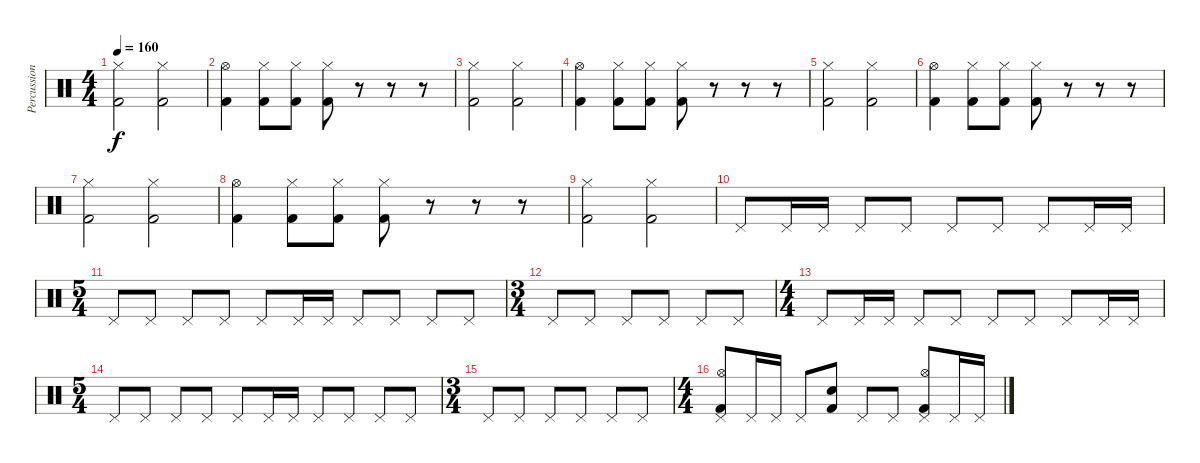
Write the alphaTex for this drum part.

\track ("Percussion" "Percussion") {instrument percussion}
\staff {score}
\articulation defaults
\ts (4 4)
\tempo 160
\clef neutral
\ks c
("Hi-Hat (closed)" "Kick (hit) 2").2{dy f} ("Hi-Hat (closed)" "Kick (hit) 2").2 |
("Hi-Hat (open)" "Kick (hit) 2").4 ("Hi-Hat (closed)" "Kick (hit) 2").8 ("Hi-Hat (closed)" "Kick (hit) 2").8 ("Hi-Hat (closed)" "Kick (hit) 2").8 r.8 r.8 r.8 |
("Hi-Hat (closed)" "Kick (hit) 2").2 ("Hi-Hat (closed)" "Kick (hit) 2").2 |
("Hi-Hat (open)" "Kick (hit) 2").4 ("Hi-Hat (closed)" "Kick (hit) 2").8 ("Hi-Hat (closed)" "Kick (hit) 2").8 ("Hi-Hat (closed)" "Kick (hit) 2").8 r.8 r.8 r.8 |
("Hi-Hat (closed)" "Kick (hit) 2").2 ("Hi-Hat (closed)" "Kick (hit) 2").2 |
("Hi-Hat (open)" "Kick (hit) 2").4 ("Hi-Hat (closed)" "Kick (hit) 2").8 ("Hi-Hat (closed)" "Kick (hit) 2").8 ("Hi-Hat (closed)" "Kick (hit) 2").8 r.8 r.8 r.8 |
("Hi-Hat (closed)" "Kick (hit) 2").2 ("Hi-Hat (closed)" "Kick (hit) 2").2 |
("Hi-Hat (open)" "Kick (hit) 2").4 ("Hi-Hat (closed)" "Kick (hit) 2").8 ("Hi-Hat (closed)" "Kick (hit) 2").8 ("Hi-Hat (closed)" "Kick (hit) 2").8 r.8 r.8 r.8 |
("Hi-Hat (closed)" "Kick (hit) 2").2 ("Hi-Hat (closed)" "Kick (hit) 2").2 |
"Pedal Hi-Hat (hit)".8 "Pedal Hi-Hat (hit)".16 "Pedal Hi-Hat (hit)".16 "Pedal Hi-Hat (hit)".8 "Pedal Hi-Hat (hit)".8 "Pedal Hi-Hat (hit)".8 "Pedal Hi-Hat (hit)".8 "Pedal Hi-Hat (hit)".8 "Pedal Hi-Hat (hit)".16 "Pedal Hi-Hat (hit)".16 |
\ts (5 4)
"Pedal Hi-Hat (hit)".8 "Pedal Hi-Hat (hit)".8 "Pedal Hi-Hat (hit)".8 "Pedal Hi-Hat (hit)".8 "Pedal Hi-Hat (hit)".8 "Pedal Hi-Hat (hit)".16 "Pedal Hi-Hat (hit)".16 "Pedal Hi-Hat (hit)".8 "Pedal Hi-Hat (hit)".8 "Pedal Hi-Hat (hit)".8 "Pedal Hi-Hat (hit)".8 |
\ts (3 4)
"Pedal Hi-Hat (hit)".8 "Pedal Hi-Hat (hit)".8 "Pedal Hi-Hat (hit)".8 "Pedal Hi-Hat (hit)".8 "Pedal Hi-Hat (hit)".8 "Pedal Hi-Hat (hit)".8 |
\ts (4 4)
"Pedal Hi-Hat (hit)".8 "Pedal Hi-Hat (hit)".16 "Pedal Hi-Hat (hit)".16 "Pedal Hi-Hat (hit)".8 "Pedal Hi-Hat (hit)".8 "Pedal Hi-Hat (hit)".8 "Pedal Hi-Hat (hit)".8 "Pedal Hi-Hat (hit)".8 "Pedal Hi-Hat (hit)".16 "Pedal Hi-Hat (hit)".16 |
\ts (5 4)
"Pedal Hi-Hat (hit)".8 "Pedal Hi-Hat (hit)".8 "Pedal Hi-Hat (hit)".8 "Pedal Hi-Hat (hit)".8 "Pedal Hi-Hat (hit)".8 "Pedal Hi-Hat (hit)".16 "Pedal Hi-Hat (hit)".16 "Pedal Hi-Hat (hit)".8 "Pedal Hi-Hat (hit)".8 "Pedal Hi-Hat (hit)".8 "Pedal Hi-Hat (hit)".8 |
\ts (3 4)
"Pedal Hi-Hat (hit)".8 "Pedal Hi-Hat (hit)".8 "Pedal Hi-Hat (hit)".8 "Pedal Hi-Hat (hit)".8 "Pedal Hi-Hat (hit)".8 "Pedal Hi-Hat (hit)".8 |
\ts (4 4)
("Hi-Hat (open)" "Kick (hit) 2" "Pedal Hi-Hat (hit)").8 "Pedal Hi-Hat (hit)".16 "Pedal Hi-Hat (hit)".16 "Pedal Hi-Hat (hit)".8 ("Snare (hit) 2" "Kick (hit) 2").8 "Pedal Hi-Hat (hit)".8 "Pedal Hi-Hat (hit)".8 ("Hi-Hat (open)" "Kick (hit) 2" "Pedal Hi-Hat (hit)").8 "Pedal Hi-Hat (hit)".16 "Pedal Hi-Hat (hit)".16
